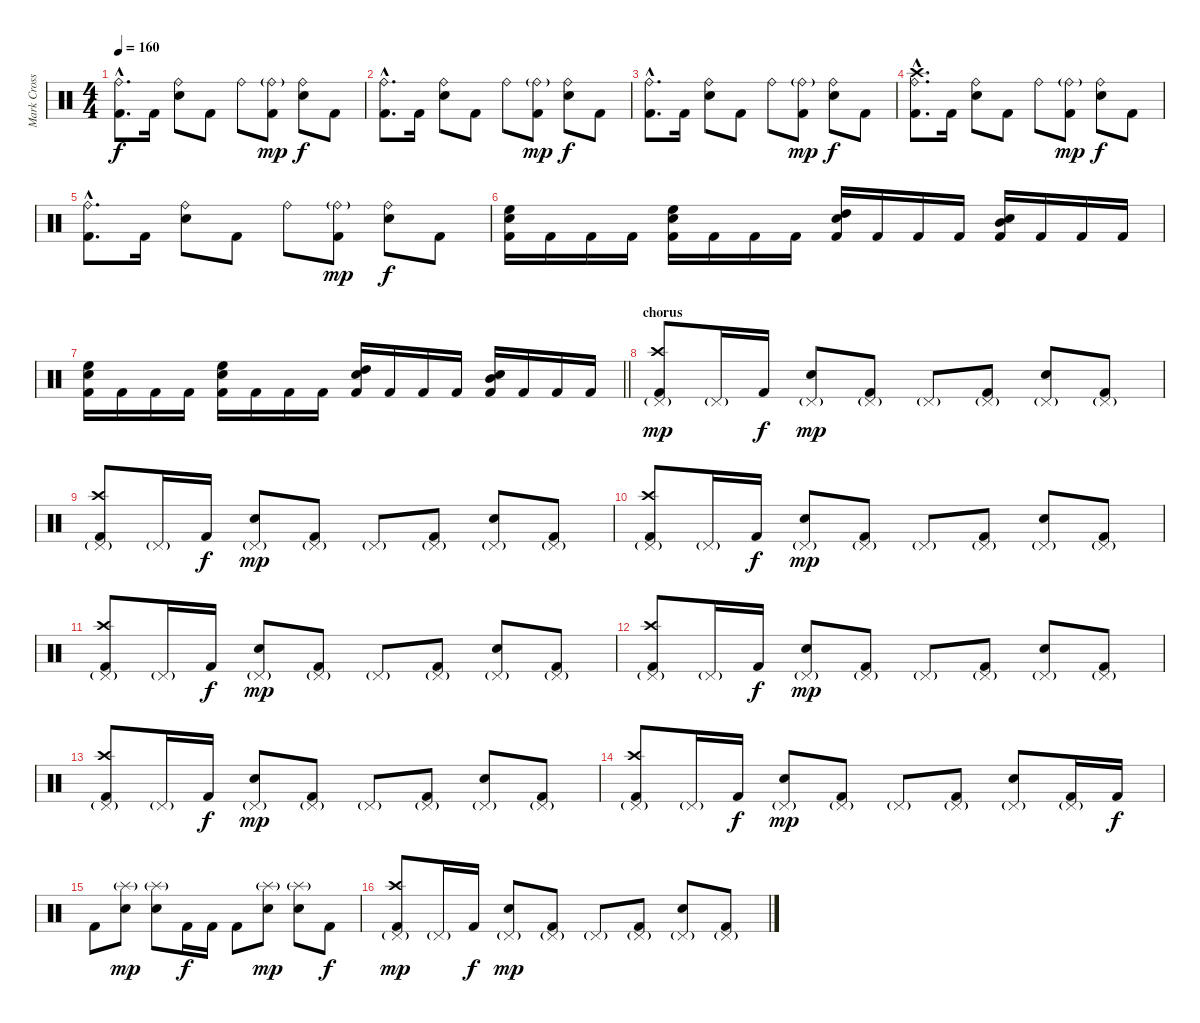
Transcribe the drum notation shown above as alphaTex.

\track ("Mark Cross" "Mark Cross") {instrument percussion}
\staff {score}
\articulation defaults
\ts (4 4)
\tempo 160
\clef neutral
\ks aminor
("Ride (bell)"{hac} "Kick (hit) 2"{hac}).8{d dy f} "Kick (hit) 2".16 ("Ride (bell)" "Electric Snare (hit)").8 "Kick (hit) 2".8 "Ride (bell)".8 ("Ride (bell)"{g} "Kick (hit) 2").8{dy mp} ("Ride (bell)" "Electric Snare (hit)").8{dy f} "Kick (hit) 2".8 |
("Ride (bell)"{hac} "Kick (hit) 2"{hac}).8{d} "Kick (hit) 2".16 ("Ride (bell)" "Electric Snare (hit)").8 "Kick (hit) 2".8 "Ride (bell)".8 ("Ride (bell)"{g} "Kick (hit) 2").8{dy mp} ("Ride (bell)" "Electric Snare (hit)").8{dy f} "Kick (hit) 2".8 |
("Ride (bell)"{hac} "Kick (hit) 2"{hac}).8{d} "Kick (hit) 2".16 ("Ride (bell)" "Electric Snare (hit)").8 "Kick (hit) 2".8 "Ride (bell)".8 ("Ride (bell)"{g} "Kick (hit) 2").8{dy mp} ("Ride (bell)" "Electric Snare (hit)").8{dy f} "Kick (hit) 2".8 |
("Crash high (hit)"{hac} "Ride (bell)"{hac} "Kick (hit) 2"{hac}).8{d} "Kick (hit) 2".16 ("Ride (bell)" "Electric Snare (hit)").8 "Kick (hit) 2".8 "Ride (bell)".8 ("Ride (bell)"{g} "Kick (hit) 2").8{dy mp} ("Ride (bell)" "Electric Snare (hit)").8{dy f} "Kick (hit) 2".8 |
("Ride (bell)"{hac} "Kick (hit) 2"{hac}).8{d} "Kick (hit) 2".16 ("Ride (bell)" "Electric Snare (hit)").8 "Kick (hit) 2".8 "Ride (bell)".8 ("Ride (bell)"{g} "Kick (hit) 2").8{dy mp} ("Ride (bell)" "Electric Snare (hit)").8{dy f} "Kick (hit) 2".8 |
("Electric Snare (hit)" "High Floor Tom (hit)" "Kick (hit) 2").16 "Kick (hit) 2".16 "Kick (hit) 2".16 "Kick (hit) 2".16 ("Electric Snare (hit)" "High Floor Tom (hit)" "Kick (hit) 2").16 "Kick (hit) 2".16 "Kick (hit) 2".16 "Kick (hit) 2".16 ("Electric Snare (hit)" "High Tom (hit)" "Kick (hit) 2").16 "Kick (hit) 2".16 "Kick (hit) 2".16 "Kick (hit) 2".16 ("Electric Snare (hit)" "Mid Tom (hit)" "Kick (hit) 2").16 "Kick (hit) 2".16 "Kick (hit) 2".16 "Kick (hit) 2".16 |
\barLineRight lightlight
("Electric Snare (hit)" "High Floor Tom (hit)" "Kick (hit) 2").16 "Kick (hit) 2".16 "Kick (hit) 2".16 "Kick (hit) 2".16 ("Electric Snare (hit)" "High Floor Tom (hit)" "Kick (hit) 2").16 "Kick (hit) 2".16 "Kick (hit) 2".16 "Kick (hit) 2".16 ("Electric Snare (hit)" "High Tom (hit)" "Kick (hit) 2").16 "Kick (hit) 2".16 "Kick (hit) 2".16 "Kick (hit) 2".16 ("Electric Snare (hit)" "Mid Tom (hit)" "Kick (hit) 2").16 "Kick (hit) 2".16 "Kick (hit) 2".16 "Kick (hit) 2".16 |
\section ("" "chorus")
("Crash high (hit)" "Pedal Hi-Hat (hit)"{g} "Kick (hit) 2").8{dy mp} "Pedal Hi-Hat (hit)"{g}.16 "Kick (hit) 2".16{dy f} ("Pedal Hi-Hat (hit)"{g} "Electric Snare (hit)").8{dy mp} ("Pedal Hi-Hat (hit)"{g} "Kick (hit) 2").8 "Pedal Hi-Hat (hit)"{g}.8 ("Pedal Hi-Hat (hit)"{g} "Kick (hit) 2").8 ("Pedal Hi-Hat (hit)"{g} "Electric Snare (hit)").8 ("Pedal Hi-Hat (hit)"{g} "Kick (hit) 2").8 |
("Crash high (hit)" "Pedal Hi-Hat (hit)"{g} "Kick (hit) 2").8 "Pedal Hi-Hat (hit)"{g}.16 "Kick (hit) 2".16{dy f} ("Pedal Hi-Hat (hit)"{g} "Electric Snare (hit)").8{dy mp} ("Pedal Hi-Hat (hit)"{g} "Kick (hit) 2").8 "Pedal Hi-Hat (hit)"{g}.8 ("Pedal Hi-Hat (hit)"{g} "Kick (hit) 2").8 ("Pedal Hi-Hat (hit)"{g} "Electric Snare (hit)").8 ("Pedal Hi-Hat (hit)"{g} "Kick (hit) 2").8 |
("Crash high (hit)" "Pedal Hi-Hat (hit)"{g} "Kick (hit) 2").8 "Pedal Hi-Hat (hit)"{g}.16 "Kick (hit) 2".16{dy f} ("Pedal Hi-Hat (hit)"{g} "Electric Snare (hit)").8{dy mp} ("Pedal Hi-Hat (hit)"{g} "Kick (hit) 2").8 "Pedal Hi-Hat (hit)"{g}.8 ("Pedal Hi-Hat (hit)"{g} "Kick (hit) 2").8 ("Pedal Hi-Hat (hit)"{g} "Electric Snare (hit)").8 ("Pedal Hi-Hat (hit)"{g} "Kick (hit) 2").8 |
("Crash high (hit)" "Pedal Hi-Hat (hit)"{g} "Kick (hit) 2").8 "Pedal Hi-Hat (hit)"{g}.16 "Kick (hit) 2".16{dy f} ("Pedal Hi-Hat (hit)"{g} "Electric Snare (hit)").8{dy mp} ("Pedal Hi-Hat (hit)"{g} "Kick (hit) 2").8 "Pedal Hi-Hat (hit)"{g}.8 ("Pedal Hi-Hat (hit)"{g} "Kick (hit) 2").8 ("Pedal Hi-Hat (hit)"{g} "Electric Snare (hit)").8 ("Pedal Hi-Hat (hit)"{g} "Kick (hit) 2").8 |
("Crash high (hit)" "Pedal Hi-Hat (hit)"{g} "Kick (hit) 2").8 "Pedal Hi-Hat (hit)"{g}.16 "Kick (hit) 2".16{dy f} ("Pedal Hi-Hat (hit)"{g} "Electric Snare (hit)").8{dy mp} ("Pedal Hi-Hat (hit)"{g} "Kick (hit) 2").8 "Pedal Hi-Hat (hit)"{g}.8 ("Pedal Hi-Hat (hit)"{g} "Kick (hit) 2").8 ("Pedal Hi-Hat (hit)"{g} "Electric Snare (hit)").8 ("Pedal Hi-Hat (hit)"{g} "Kick (hit) 2").8 |
("Crash high (hit)" "Pedal Hi-Hat (hit)"{g} "Kick (hit) 2").8 "Pedal Hi-Hat (hit)"{g}.16 "Kick (hit) 2".16{dy f} ("Pedal Hi-Hat (hit)"{g} "Electric Snare (hit)").8{dy mp} ("Pedal Hi-Hat (hit)"{g} "Kick (hit) 2").8 "Pedal Hi-Hat (hit)"{g}.8 ("Pedal Hi-Hat (hit)"{g} "Kick (hit) 2").8 ("Pedal Hi-Hat (hit)"{g} "Electric Snare (hit)").8 ("Pedal Hi-Hat (hit)"{g} "Kick (hit) 2").8 |
("Crash high (hit)" "Pedal Hi-Hat (hit)"{g} "Kick (hit) 2").8 "Pedal Hi-Hat (hit)"{g}.16 "Kick (hit) 2".16{dy f} ("Pedal Hi-Hat (hit)"{g} "Electric Snare (hit)").8{dy mp} ("Pedal Hi-Hat (hit)"{g} "Kick (hit) 2").8 "Pedal Hi-Hat (hit)"{g}.8 ("Pedal Hi-Hat (hit)"{g} "Kick (hit) 2").8 ("Pedal Hi-Hat (hit)"{g} "Electric Snare (hit)").8 ("Pedal Hi-Hat (hit)"{g} "Kick (hit) 2").16 "Kick (hit) 2".16{dy f} |
"Kick (hit) 2".8 ("Splash (hit)"{g} "Electric Snare (hit)").8{dy mp} ("Splash (hit)"{g} "Electric Snare (hit)").8 "Kick (hit) 2".16{dy f} "Kick (hit) 2".16 "Kick (hit) 2".8 ("Splash (hit)"{g} "Electric Snare (hit)").8{dy mp} ("Splash (hit)"{g} "Electric Snare (hit)").8 "Kick (hit) 2".8{dy f} |
("Crash high (hit)" "Pedal Hi-Hat (hit)"{g} "Kick (hit) 2").8{dy mp} "Pedal Hi-Hat (hit)"{g}.16 "Kick (hit) 2".16{dy f} ("Pedal Hi-Hat (hit)"{g} "Electric Snare (hit)").8{dy mp} ("Pedal Hi-Hat (hit)"{g} "Kick (hit) 2").8 "Pedal Hi-Hat (hit)"{g}.8 ("Pedal Hi-Hat (hit)"{g} "Kick (hit) 2").8 ("Pedal Hi-Hat (hit)"{g} "Electric Snare (hit)").8 ("Pedal Hi-Hat (hit)"{g} "Kick (hit) 2").8
